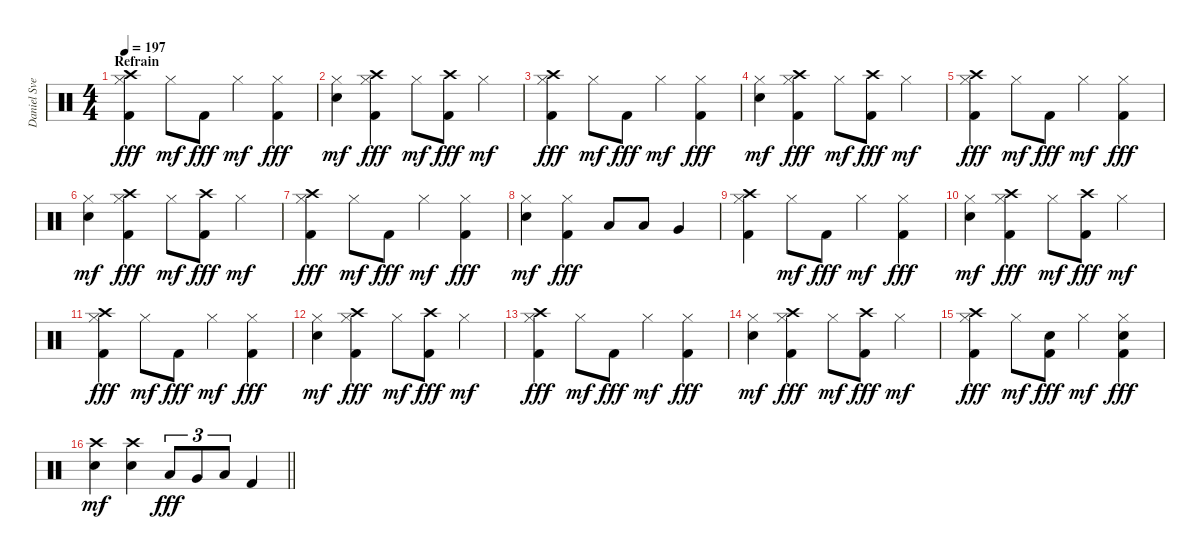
\track ("Daniel Svensson" "Daniel Sve") {instrument percussion}
\staff {score}
\articulation defaults
\ts (4 4)
\section ("" "Refrain")
\tempo 197
\clef neutral
\ks c
("Crash high (hit)" "Hi-Hat (closed)" "Kick (hit) 2").4{dy fff} "Hi-Hat (closed)".8{dy mf} "Kick (hit) 2".8{dy fff} "Hi-Hat (closed)".4{dy mf} ("Hi-Hat (closed)" "Kick (hit) 2").4{dy fff} |
("Hi-Hat (closed)" "Electric Snare (hit)").4{dy mf} ("Crash high (hit)" "Hi-Hat (closed)" "Kick (hit) 2").4{dy fff} "Hi-Hat (closed)".8{dy mf} ("Crash high (hit)" "Kick (hit) 2").8{dy fff} "Hi-Hat (closed)".4{dy mf} |
("Crash high (hit)" "Hi-Hat (closed)" "Kick (hit) 2").4{dy fff} "Hi-Hat (closed)".8{dy mf} "Kick (hit) 2".8{dy fff} "Hi-Hat (closed)".4{dy mf} ("Hi-Hat (closed)" "Kick (hit) 2").4{dy fff} |
("Hi-Hat (closed)" "Electric Snare (hit)").4{dy mf} ("Crash high (hit)" "Hi-Hat (closed)" "Kick (hit) 2").4{dy fff} "Hi-Hat (closed)".8{dy mf} ("Crash high (hit)" "Kick (hit) 2").8{dy fff} "Hi-Hat (closed)".4{dy mf} |
("Crash high (hit)" "Hi-Hat (closed)" "Kick (hit) 2").4{dy fff} "Hi-Hat (closed)".8{dy mf} "Kick (hit) 2".8{dy fff} "Hi-Hat (closed)".4{dy mf} ("Hi-Hat (closed)" "Kick (hit) 2").4{dy fff} |
("Hi-Hat (closed)" "Electric Snare (hit)").4{dy mf} ("Crash high (hit)" "Hi-Hat (closed)" "Kick (hit) 2").4{dy fff} "Hi-Hat (closed)".8{dy mf} ("Crash high (hit)" "Kick (hit) 2").8{dy fff} "Hi-Hat (closed)".4{dy mf} |
("Crash high (hit)" "Hi-Hat (closed)" "Kick (hit) 2").4{dy fff} "Hi-Hat (closed)".8{dy mf} "Kick (hit) 2".8{dy fff} "Hi-Hat (closed)".4{dy mf} ("Hi-Hat (closed)" "Kick (hit) 2").4{dy fff} |
("Hi-Hat (closed)" "Electric Snare (hit)").4{dy mf} ("Hi-Hat (closed)" "Kick (hit) 2").4{dy fff} "Low Tom (hit)".8 "Low Tom (hit)".8 "Very Low Tom (hit)".4 |
("Crash high (hit)" "Hi-Hat (closed)" "Kick (hit) 2").4 "Hi-Hat (closed)".8{dy mf} "Kick (hit) 2".8{dy fff} "Hi-Hat (closed)".4{dy mf} ("Hi-Hat (closed)" "Kick (hit) 2").4{dy fff} |
("Hi-Hat (closed)" "Electric Snare (hit)").4{dy mf} ("Crash high (hit)" "Hi-Hat (closed)" "Kick (hit) 2").4{dy fff} "Hi-Hat (closed)".8{dy mf} ("Crash high (hit)" "Kick (hit) 2").8{dy fff} "Hi-Hat (closed)".4{dy mf} |
("Crash high (hit)" "Hi-Hat (closed)" "Kick (hit) 2").4{dy fff} "Hi-Hat (closed)".8{dy mf} "Kick (hit) 2".8{dy fff} "Hi-Hat (closed)".4{dy mf} ("Hi-Hat (closed)" "Kick (hit) 2").4{dy fff} |
("Hi-Hat (closed)" "Electric Snare (hit)").4{dy mf} ("Crash high (hit)" "Hi-Hat (closed)" "Kick (hit) 2").4{dy fff} "Hi-Hat (closed)".8{dy mf} ("Crash high (hit)" "Kick (hit) 2").8{dy fff} "Hi-Hat (closed)".4{dy mf} |
("Crash high (hit)" "Hi-Hat (closed)" "Kick (hit) 2").4{dy fff} "Hi-Hat (closed)".8{dy mf} "Kick (hit) 2".8{dy fff} "Hi-Hat (closed)".4{dy mf} ("Hi-Hat (closed)" "Kick (hit) 2").4{dy fff} |
("Hi-Hat (closed)" "Electric Snare (hit)").4{dy mf} ("Crash high (hit)" "Hi-Hat (closed)" "Kick (hit) 2").4{dy fff} "Hi-Hat (closed)".8{dy mf} ("Crash high (hit)" "Kick (hit) 2").8{dy fff} "Hi-Hat (closed)".4{dy mf} |
("Crash high (hit)" "Hi-Hat (closed)" "Kick (hit) 2").4{dy fff} "Hi-Hat (closed)".8{dy mf} ("Electric Snare (hit)" "Kick (hit) 2").8{dy fff} "Hi-Hat (closed)".4{dy mf} ("Hi-Hat (closed)" "Electric Snare (hit)" "Kick (hit) 2").4{dy fff} |
\barLineRight lightlight
("Crash high (hit)" "Electric Snare (hit)").4{dy mf} ("Crash high (hit)" "Electric Snare (hit)").4 "Low Tom (hit)".8{tu (3 2) dy fff} "Very Low Tom (hit)".8{tu (3 2)} "Low Floor Tom (hit)".8{tu (3 2)} "Kick (hit) 2".4
